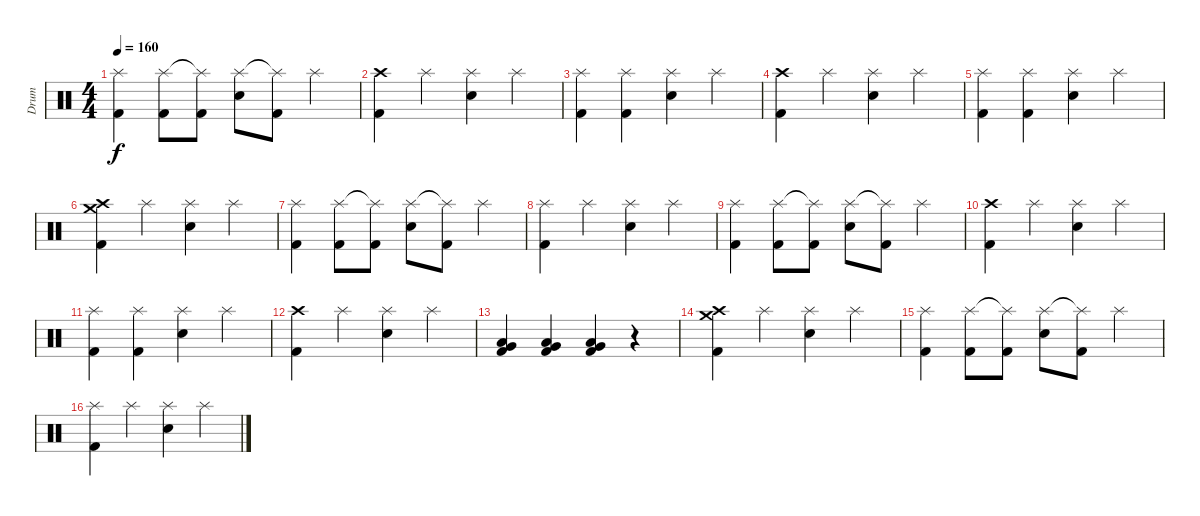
\track ("Drum" "Drum") {instrument percussion}
\staff {score}
\articulation defaults
\ts (4 4)
\tempo 160
\clef neutral
\ks c
("Kick (hit) 2" "Splash (hit)").4{dy f} ("Kick (hit) 2" "Splash (hit)").8 ("Kick (hit) 2" "Splash (hit)"{t}).8 ("Electric Snare (hit)" "Splash (hit)").8 ("Kick (hit) 2" "Splash (hit)"{t}).8 "Splash (hit)".4 |
("Kick (hit) 2" "Crash high (hit)").4 "Splash (hit)".4 ("Electric Snare (hit)" "Splash (hit)").4 "Splash (hit)".4 |
("Kick (hit) 2" "Splash (hit)").4 ("Kick (hit) 2" "Splash (hit)").4 ("Electric Snare (hit)" "Splash (hit)").4 "Splash (hit)".4 |
("Kick (hit) 2" "Crash high (hit)").4 "Splash (hit)".4 ("Electric Snare (hit)" "Splash (hit)").4 "Splash (hit)".4 |
("Kick (hit) 2" "Splash (hit)").4 ("Kick (hit) 2" "Splash (hit)").4 ("Electric Snare (hit)" "Splash (hit)").4 "Splash (hit)".4 |
\section ("" "")
("Kick (hit) 2" "Crash high (hit)" "Crash medium (hit)").4 "Splash (hit)".4 ("Electric Snare (hit)" "Splash (hit)").4 "Splash (hit)".4 |
("Kick (hit) 2" "Splash (hit)").4 ("Kick (hit) 2" "Splash (hit)").8 ("Kick (hit) 2" "Splash (hit)"{t}).8 ("Electric Snare (hit)" "Splash (hit)").8 ("Kick (hit) 2" "Splash (hit)"{t}).8 "Splash (hit)".4 |
("Kick (hit) 2" "Splash (hit)").4 "Splash (hit)".4 ("Electric Snare (hit)" "Splash (hit)").4 "Splash (hit)".4 |
("Kick (hit) 2" "Splash (hit)").4 ("Kick (hit) 2" "Splash (hit)").8 ("Kick (hit) 2" "Splash (hit)"{t}).8 ("Electric Snare (hit)" "Splash (hit)").8 ("Kick (hit) 2" "Splash (hit)"{t}).8 "Splash (hit)".4 |
("Kick (hit) 2" "Crash high (hit)").4 "Splash (hit)".4 ("Electric Snare (hit)" "Splash (hit)").4 "Splash (hit)".4 |
("Kick (hit) 2" "Splash (hit)").4 ("Kick (hit) 2" "Splash (hit)").4 ("Electric Snare (hit)" "Splash (hit)").4 "Splash (hit)".4 |
("Kick (hit) 2" "Crash high (hit)").4 "Splash (hit)".4 ("Electric Snare (hit)" "Splash (hit)").4 "Splash (hit)".4 |
("Kick (hit) 2" "Low Floor Tom (hit)" "Very Low Tom (hit)").4 ("Kick (hit) 2" "Low Floor Tom (hit)" "Very Low Tom (hit)").4 ("Kick (hit) 2" "Low Floor Tom (hit)" "Very Low Tom (hit)").4 r.4 |
\section ("" "")
("Kick (hit) 2" "Crash high (hit)" "Crash medium (hit)").4 "Splash (hit)".4 ("Electric Snare (hit)" "Splash (hit)").4 "Splash (hit)".4 |
("Kick (hit) 2" "Splash (hit)").4 ("Kick (hit) 2" "Splash (hit)").8 ("Kick (hit) 2" "Splash (hit)"{t}).8 ("Electric Snare (hit)" "Splash (hit)").8 ("Kick (hit) 2" "Splash (hit)"{t}).8 "Splash (hit)".4 |
("Kick (hit) 2" "Splash (hit)").4 "Splash (hit)".4 ("Electric Snare (hit)" "Splash (hit)").4 "Splash (hit)".4
